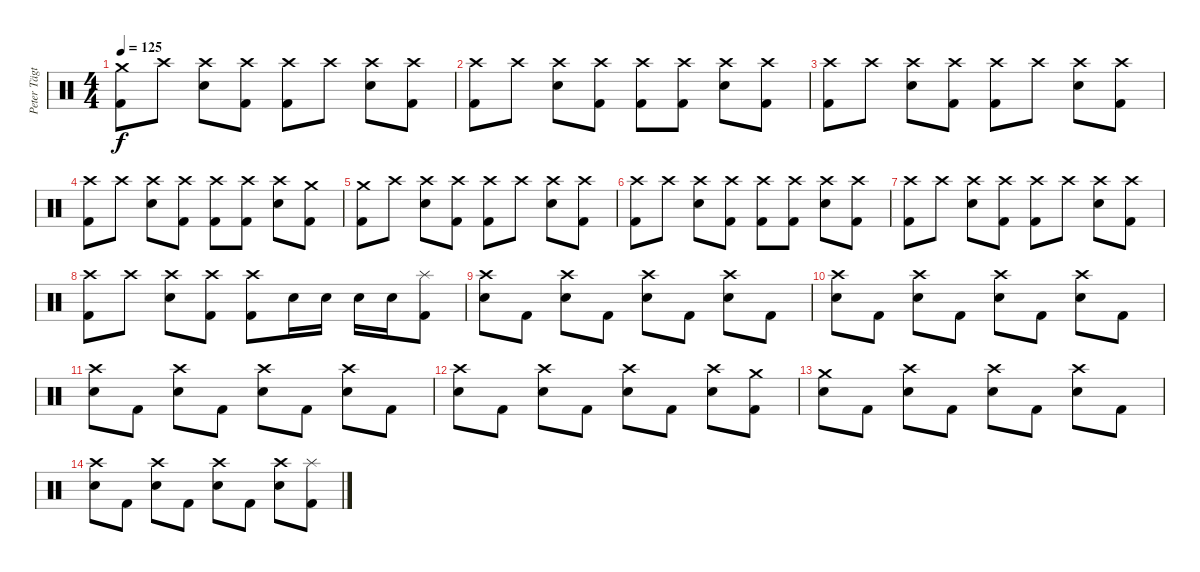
\track ("Peter Tägtgren" "Peter Tägt") {instrument percussion}
\staff {score}
\articulation defaults
\ts (4 4)
\tempo 125
\clef neutral
\ks c
("Crash medium (hit)" "Kick (hit) 2").8{dy f} "Crash high (hit)".8 ("Crash high (hit)" "Electric Snare (hit)").8 ("Crash high (hit)" "Kick (hit) 2").8 ("Crash high (hit)" "Kick (hit) 2").8 "Crash high (hit)".8 ("Crash high (hit)" "Electric Snare (hit)").8 ("Crash high (hit)" "Kick (hit) 2").8 |
("Crash high (hit)" "Kick (hit) 2").8 "Crash high (hit)".8 ("Crash high (hit)" "Electric Snare (hit)").8 ("Crash high (hit)" "Kick (hit) 2").8 ("Crash high (hit)" "Kick (hit) 2").8 ("Crash high (hit)" "Kick (hit) 2").8 ("Crash high (hit)" "Electric Snare (hit)").8 ("Crash high (hit)" "Kick (hit) 2").8 |
("Crash high (hit)" "Kick (hit) 2").8 "Crash high (hit)".8 ("Crash high (hit)" "Electric Snare (hit)").8 ("Crash high (hit)" "Kick (hit) 2").8 ("Crash high (hit)" "Kick (hit) 2").8 "Crash high (hit)".8 ("Crash high (hit)" "Electric Snare (hit)").8 ("Crash high (hit)" "Kick (hit) 2").8 |
("Crash high (hit)" "Kick (hit) 2").8 "Crash high (hit)".8 ("Crash high (hit)" "Electric Snare (hit)").8 ("Crash high (hit)" "Kick (hit) 2").8 ("Crash high (hit)" "Kick (hit) 2").8 ("Crash high (hit)" "Kick (hit) 2").8 ("Crash high (hit)" "Electric Snare (hit)").8 ("Crash medium (hit)" "Kick (hit) 2").8 |
("Crash medium (hit)" "Kick (hit) 2").8 "Crash high (hit)".8 ("Crash high (hit)" "Electric Snare (hit)").8 ("Crash high (hit)" "Kick (hit) 2").8 ("Crash high (hit)" "Kick (hit) 2").8 "Crash high (hit)".8 ("Crash high (hit)" "Electric Snare (hit)").8 ("Crash high (hit)" "Kick (hit) 2").8 |
("Crash high (hit)" "Kick (hit) 2").8 "Crash high (hit)".8 ("Crash high (hit)" "Electric Snare (hit)").8 ("Crash high (hit)" "Kick (hit) 2").8 ("Crash high (hit)" "Kick (hit) 2").8 ("Crash high (hit)" "Kick (hit) 2").8 ("Crash high (hit)" "Electric Snare (hit)").8 ("Crash high (hit)" "Kick (hit) 2").8 |
("Crash high (hit)" "Kick (hit) 2").8 "Crash high (hit)".8 ("Crash high (hit)" "Electric Snare (hit)").8 ("Crash high (hit)" "Kick (hit) 2").8 ("Crash high (hit)" "Kick (hit) 2").8 "Crash high (hit)".8 ("Crash high (hit)" "Electric Snare (hit)").8 ("Crash high (hit)" "Kick (hit) 2").8 |
("Crash high (hit)" "Kick (hit) 2").8 "Crash high (hit)".8 ("Crash high (hit)" "Electric Snare (hit)").8 ("Crash high (hit)" "Kick (hit) 2").8 ("Crash high (hit)" "Kick (hit) 2").8 "Electric Snare (hit)".16 "Electric Snare (hit)".16 "Electric Snare (hit)".16 "Electric Snare (hit)".16 ("Splash (hit)" "Kick (hit) 2").8 |
("Crash high (hit)" "Electric Snare (hit)").8 "Kick (hit) 2".8 ("Crash high (hit)" "Electric Snare (hit)").8 "Kick (hit) 2".8 ("Crash high (hit)" "Electric Snare (hit)").8 "Kick (hit) 2".8 ("Crash high (hit)" "Electric Snare (hit)").8 "Kick (hit) 2".8 |
("Crash high (hit)" "Electric Snare (hit)").8 "Kick (hit) 2".8 ("Crash high (hit)" "Electric Snare (hit)").8 "Kick (hit) 2".8 ("Crash high (hit)" "Electric Snare (hit)").8 "Kick (hit) 2".8 ("Crash high (hit)" "Electric Snare (hit)").8 "Kick (hit) 2".8 |
("Crash high (hit)" "Electric Snare (hit)").8 "Kick (hit) 2".8 ("Crash high (hit)" "Electric Snare (hit)").8 "Kick (hit) 2".8 ("Crash high (hit)" "Electric Snare (hit)").8 "Kick (hit) 2".8 ("Crash high (hit)" "Electric Snare (hit)").8 "Kick (hit) 2".8 |
("Crash high (hit)" "Electric Snare (hit)").8 "Kick (hit) 2".8 ("Crash high (hit)" "Electric Snare (hit)").8 "Kick (hit) 2".8 ("Crash high (hit)" "Electric Snare (hit)").8 "Kick (hit) 2".8 ("Crash high (hit)" "Electric Snare (hit)").8 ("Crash medium (hit)" "Kick (hit) 2").8 |
("Crash medium (hit)" "Electric Snare (hit)").8 "Kick (hit) 2".8 ("Crash high (hit)" "Electric Snare (hit)").8 "Kick (hit) 2".8 ("Crash high (hit)" "Electric Snare (hit)").8 "Kick (hit) 2".8 ("Crash high (hit)" "Electric Snare (hit)").8 "Kick (hit) 2".8 |
("Crash high (hit)" "Electric Snare (hit)").8 "Kick (hit) 2".8 ("Crash high (hit)" "Electric Snare (hit)").8 "Kick (hit) 2".8 ("Crash high (hit)" "Electric Snare (hit)").8 "Kick (hit) 2".8 ("Crash high (hit)" "Electric Snare (hit)").8 ("Splash (hit)" "Kick (hit) 2").8
